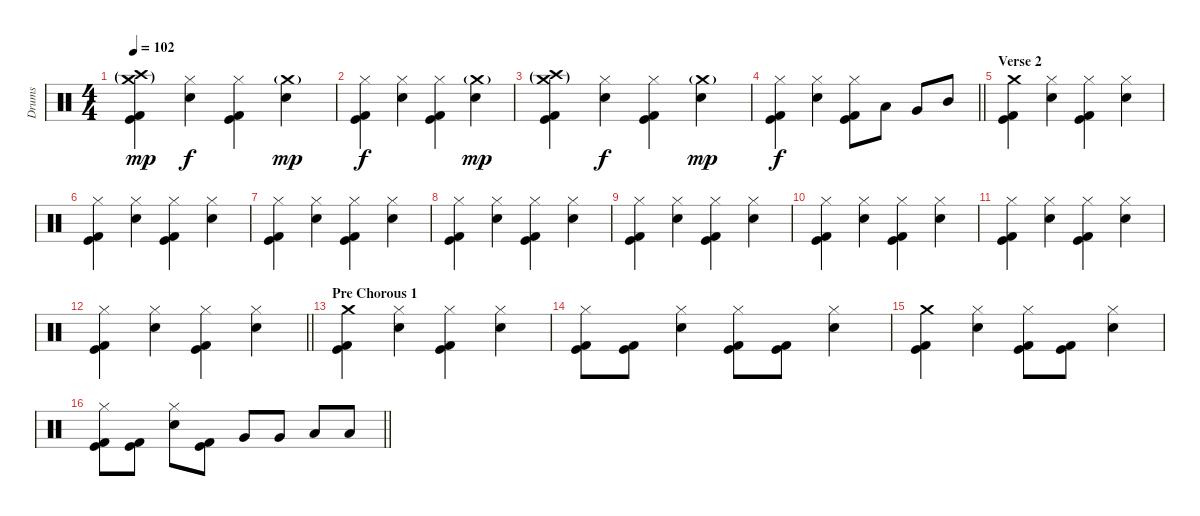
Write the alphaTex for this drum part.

\track ("Drums" "Drums") {instrument percussion}
\staff {score}
\articulation defaults
\ts (4 4)
\tempo 102
\clef neutral
\ks c
("Crash high (hit)"{g} "Crash medium (hit)"{g} "Kick (hit)" "Kick (hit) 2").4{dy mp} ("Hi-Hat (closed)" "Electric Snare (hit)").4{dy f} ("Hi-Hat (closed)" "Kick (hit)" "Kick (hit) 2").4 ("Crash medium (hit)"{g} "Electric Snare (hit)").4{dy mp} |
("Hi-Hat (closed)" "Kick (hit)" "Kick (hit) 2").4{dy f} ("Hi-Hat (closed)" "Electric Snare (hit)").4 ("Hi-Hat (closed)" "Kick (hit)" "Kick (hit) 2").4 ("Crash medium (hit)"{g} "Electric Snare (hit)").4{dy mp} |
("Crash high (hit)"{g} "Crash medium (hit)"{g} "Kick (hit)" "Kick (hit) 2").4 ("Hi-Hat (closed)" "Electric Snare (hit)").4{dy f} ("Hi-Hat (closed)" "Kick (hit)" "Kick (hit) 2").4 ("Crash medium (hit)"{g} "Electric Snare (hit)").4{dy mp} |
\barLineRight lightlight
("Hi-Hat (closed)" "Kick (hit)" "Kick (hit) 2").4{dy f} ("Hi-Hat (closed)" "Electric Snare (hit)").4 ("Hi-Hat (closed)" "Kick (hit)" "Kick (hit) 2").8 "Low Tom (hit)".8 "Very Low Tom (hit)".8 "Mid Tom (hit)".8 |
\section ("" "Verse 2")
("Crash medium (hit)" "Kick (hit)" "Kick (hit) 2").4 ("Hi-Hat (closed)" "Electric Snare (hit)").4 ("Hi-Hat (closed)" "Kick (hit)" "Kick (hit) 2").4 ("Hi-Hat (closed)" "Electric Snare (hit)").4 |
("Hi-Hat (closed)" "Kick (hit)" "Kick (hit) 2").4 ("Hi-Hat (closed)" "Electric Snare (hit)").4 ("Hi-Hat (closed)" "Kick (hit)" "Kick (hit) 2").4 ("Hi-Hat (closed)" "Electric Snare (hit)").4 |
("Hi-Hat (closed)" "Kick (hit)" "Kick (hit) 2").4 ("Hi-Hat (closed)" "Electric Snare (hit)").4 ("Hi-Hat (closed)" "Kick (hit)" "Kick (hit) 2").4 ("Hi-Hat (closed)" "Electric Snare (hit)").4 |
("Hi-Hat (closed)" "Kick (hit)" "Kick (hit) 2").4 ("Hi-Hat (closed)" "Electric Snare (hit)").4 ("Hi-Hat (closed)" "Kick (hit)" "Kick (hit) 2").4 ("Hi-Hat (closed)" "Electric Snare (hit)").4 |
("Hi-Hat (closed)" "Kick (hit)" "Kick (hit) 2").4 ("Hi-Hat (closed)" "Electric Snare (hit)").4 ("Hi-Hat (closed)" "Kick (hit)" "Kick (hit) 2").4 ("Hi-Hat (closed)" "Electric Snare (hit)").4 |
("Hi-Hat (closed)" "Kick (hit)" "Kick (hit) 2").4 ("Hi-Hat (closed)" "Electric Snare (hit)").4 ("Hi-Hat (closed)" "Kick (hit)" "Kick (hit) 2").4 ("Hi-Hat (closed)" "Electric Snare (hit)").4 |
("Hi-Hat (closed)" "Kick (hit)" "Kick (hit) 2").4 ("Hi-Hat (closed)" "Electric Snare (hit)").4 ("Hi-Hat (closed)" "Kick (hit)" "Kick (hit) 2").4 ("Hi-Hat (closed)" "Electric Snare (hit)").4 |
\barLineRight lightlight
("Hi-Hat (closed)" "Kick (hit)" "Kick (hit) 2").4 ("Hi-Hat (closed)" "Electric Snare (hit)").4 ("Hi-Hat (closed)" "Kick (hit)" "Kick (hit) 2").4 ("Hi-Hat (closed)" "Electric Snare (hit)").4 |
\section ("" "Pre Chorous 1")
("Crash medium (hit)" "Kick (hit)" "Kick (hit) 2").4 ("Hi-Hat (closed)" "Electric Snare (hit)").4 ("Hi-Hat (closed)" "Kick (hit)" "Kick (hit) 2").4 ("Hi-Hat (closed)" "Electric Snare (hit)").4 |
("Hi-Hat (closed)" "Kick (hit)" "Kick (hit) 2").8 ("Kick (hit)" "Kick (hit) 2").8 ("Hi-Hat (closed)" "Electric Snare (hit)").4 ("Hi-Hat (closed)" "Kick (hit)" "Kick (hit) 2").8 ("Kick (hit)" "Kick (hit) 2").8 ("Hi-Hat (closed)" "Electric Snare (hit)").4 |
("Crash medium (hit)" "Kick (hit)" "Kick (hit) 2").4 ("Hi-Hat (closed)" "Electric Snare (hit)").4 ("Hi-Hat (closed)" "Kick (hit)" "Kick (hit) 2").8 ("Kick (hit)" "Kick (hit) 2").8 ("Hi-Hat (closed)" "Electric Snare (hit)").4 |
\barLineRight lightlight
("Hi-Hat (closed)" "Kick (hit)" "Kick (hit) 2").8 ("Kick (hit)" "Kick (hit) 2").8 ("Hi-Hat (closed)" "Electric Snare (hit)").8 ("Kick (hit)" "Kick (hit) 2").8 "Very Low Tom (hit)".8 "Very Low Tom (hit)".8 "Low Tom (hit)".8 "Low Tom (hit)".8
